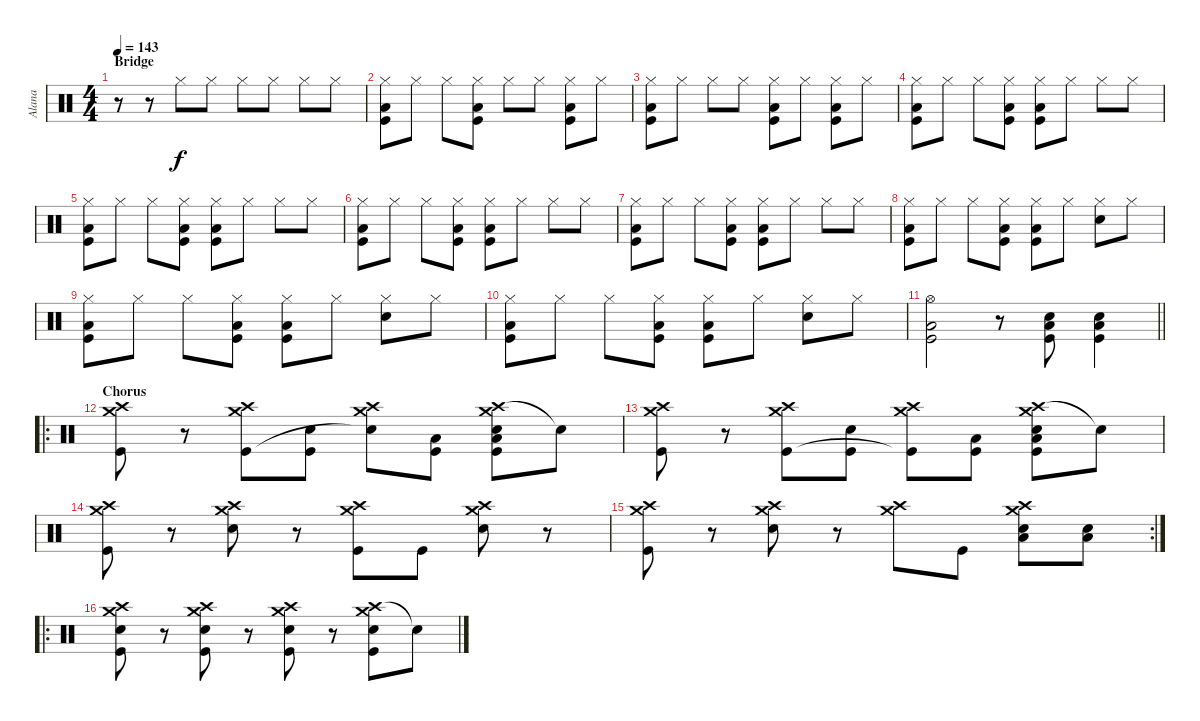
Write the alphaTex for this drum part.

\track ("Alana" "Alana") {instrument percussion}
\staff {score}
\articulation defaults
\ts (4 4)
\section ("" "Bridge")
\tempo 143
\clef neutral
\ks c
r.8{dy f} r.8 "Hi-Hat (closed)".8 "Hi-Hat (closed)".8 "Hi-Hat (closed)".8 "Hi-Hat (closed)".8 "Hi-Hat (closed)".8 "Hi-Hat (closed)".8 |
("Hi-Hat (closed)" "Low Floor Tom (hit)" "Kick (hit)").8 "Hi-Hat (closed)".8 "Hi-Hat (closed)".8 ("Hi-Hat (closed)" "Low Floor Tom (hit)" "Kick (hit)").8 "Hi-Hat (closed)".8 "Hi-Hat (closed)".8 ("Hi-Hat (closed)" "Low Floor Tom (hit)" "Kick (hit)").8 "Hi-Hat (closed)".8 |
("Hi-Hat (closed)" "Low Floor Tom (hit)" "Kick (hit)").8 "Hi-Hat (closed)".8 "Hi-Hat (closed)".8 "Hi-Hat (closed)".8 ("Hi-Hat (closed)" "Low Floor Tom (hit)" "Kick (hit)").8 "Hi-Hat (closed)".8 ("Hi-Hat (closed)" "Low Floor Tom (hit)" "Kick (hit)").8 "Hi-Hat (closed)".8 |
("Hi-Hat (closed)" "Low Floor Tom (hit)" "Kick (hit)").8 "Hi-Hat (closed)".8 "Hi-Hat (closed)".8 ("Hi-Hat (closed)" "Low Floor Tom (hit)" "Kick (hit)").8 ("Hi-Hat (closed)" "Low Floor Tom (hit)" "Kick (hit)").8 "Hi-Hat (closed)".8 "Hi-Hat (closed)".8 "Hi-Hat (closed)".8 |
("Hi-Hat (closed)" "Low Floor Tom (hit)" "Kick (hit)").8 "Hi-Hat (closed)".8 "Hi-Hat (closed)".8 ("Hi-Hat (closed)" "Low Floor Tom (hit)" "Kick (hit)").8 ("Hi-Hat (closed)" "Low Floor Tom (hit)" "Kick (hit)").8 "Hi-Hat (closed)".8 "Hi-Hat (closed)".8 "Hi-Hat (closed)".8 |
("Hi-Hat (closed)" "Low Floor Tom (hit)" "Kick (hit)").8 "Hi-Hat (closed)".8 "Hi-Hat (closed)".8 ("Hi-Hat (closed)" "Low Floor Tom (hit)" "Kick (hit)").8 ("Hi-Hat (closed)" "Low Floor Tom (hit)" "Kick (hit)").8 "Hi-Hat (closed)".8 "Hi-Hat (closed)".8 "Hi-Hat (closed)".8 |
("Hi-Hat (closed)" "Low Floor Tom (hit)" "Kick (hit)").8 "Hi-Hat (closed)".8 "Hi-Hat (closed)".8 ("Hi-Hat (closed)" "Low Floor Tom (hit)" "Kick (hit)").8 ("Hi-Hat (closed)" "Low Floor Tom (hit)" "Kick (hit)").8 "Hi-Hat (closed)".8 "Hi-Hat (closed)".8 "Hi-Hat (closed)".8 |
("Hi-Hat (closed)" "Low Floor Tom (hit)" "Kick (hit)").8 "Hi-Hat (closed)".8 "Hi-Hat (closed)".8 ("Hi-Hat (closed)" "Low Floor Tom (hit)" "Kick (hit)").8 ("Hi-Hat (closed)" "Low Floor Tom (hit)" "Kick (hit)").8 "Hi-Hat (closed)".8 ("Hi-Hat (closed)" "Electric Snare (hit)").8 "Hi-Hat (closed)".8 |
("Hi-Hat (closed)" "Low Floor Tom (hit)" "Kick (hit)").8 "Hi-Hat (closed)".8 "Hi-Hat (closed)".8 ("Hi-Hat (closed)" "Low Floor Tom (hit)" "Kick (hit)").8 ("Hi-Hat (closed)" "Low Floor Tom (hit)" "Kick (hit)").8 "Hi-Hat (closed)".8 ("Hi-Hat (closed)" "Electric Snare (hit)").8 "Hi-Hat (closed)".8 |
("Hi-Hat (closed)" "Low Floor Tom (hit)" "Kick (hit)").8 "Hi-Hat (closed)".8 "Hi-Hat (closed)".8 ("Hi-Hat (closed)" "Low Floor Tom (hit)" "Kick (hit)").8 ("Hi-Hat (closed)" "Low Floor Tom (hit)" "Kick (hit)").8 "Hi-Hat (closed)".8 ("Hi-Hat (closed)" "Electric Snare (hit)").8 "Hi-Hat (closed)".8 |
\barLineRight lightlight
("Hi-Hat (open)" "Low Floor Tom (hit)" "Kick (hit)").2 r.8 ("Electric Snare (hit)" "Low Floor Tom (hit)" "Kick (hit)").8 ("Electric Snare (hit)" "Low Floor Tom (hit)" "Kick (hit)").4 |
\ro
\section ("" "Chorus")
("Crash medium (hit)" "Crash high (hit)" "Kick (hit)").8 r.8 ("Crash high (hit)" "Crash medium (hit)" "Kick (hit)").8 ("Electric Snare (hit)" "Kick (hit)").8 ("Crash medium (hit)" "Crash high (hit)" "Snare (hit)"{t}).8 ("Low Floor Tom (hit)" "Kick (hit)").8 ("Crash high (hit)" "Crash medium (hit)" "Electric Snare (hit)" "Low Floor Tom (hit)" "Kick (hit)").8 "Snare (hit)"{t}.8 |
("Crash medium (hit)" "Crash high (hit)" "Kick (hit)").8 r.8 ("Crash high (hit)" "Crash medium (hit)" "Kick (hit)").8 ("Electric Snare (hit)" "Kick (hit)").8 ("Crash medium (hit)" "Crash high (hit)" "Kick (hit)"{t}).8 ("Low Floor Tom (hit)" "Kick (hit)").8 ("Crash high (hit)" "Crash medium (hit)" "Low Floor Tom (hit)" "Electric Snare (hit)" "Kick (hit)").8 "Snare (hit)"{t}.8 |
("Crash medium (hit)" "Crash high (hit)" "Kick (hit)").8 r.8 ("Crash medium (hit)" "Crash high (hit)" "Electric Snare (hit)").8 r.8 ("Crash medium (hit)" "Crash high (hit)" "Kick (hit)").8 "Kick (hit)".8 ("Crash medium (hit)" "Crash high (hit)" "Electric Snare (hit)").8 r.8 |
\rc 2
("Crash medium (hit)" "Crash high (hit)" "Kick (hit)").8 r.8 ("Crash medium (hit)" "Crash high (hit)" "Electric Snare (hit)").8 r.8 ("Crash medium (hit)" "Crash high (hit)").8 "Kick (hit)".8 ("Crash medium (hit)" "Crash high (hit)" "Low Floor Tom (hit)" "Electric Snare (hit)").8 ("Low Floor Tom (hit)" "Electric Snare (hit)").8 |
\ro
("Crash medium (hit)" "Crash high (hit)" "Electric Snare (hit)" "Kick (hit)").8 r.8 ("Crash high (hit)" "Crash medium (hit)" "Electric Snare (hit)" "Kick (hit)").8 r.8 ("Crash medium (hit)" "Crash high (hit)" "Electric Snare (hit)" "Kick (hit)").8 r.8 ("Crash high (hit)" "Crash medium (hit)" "Electric Snare (hit)" "Kick (hit)").8 "Snare (hit)"{t}.8
